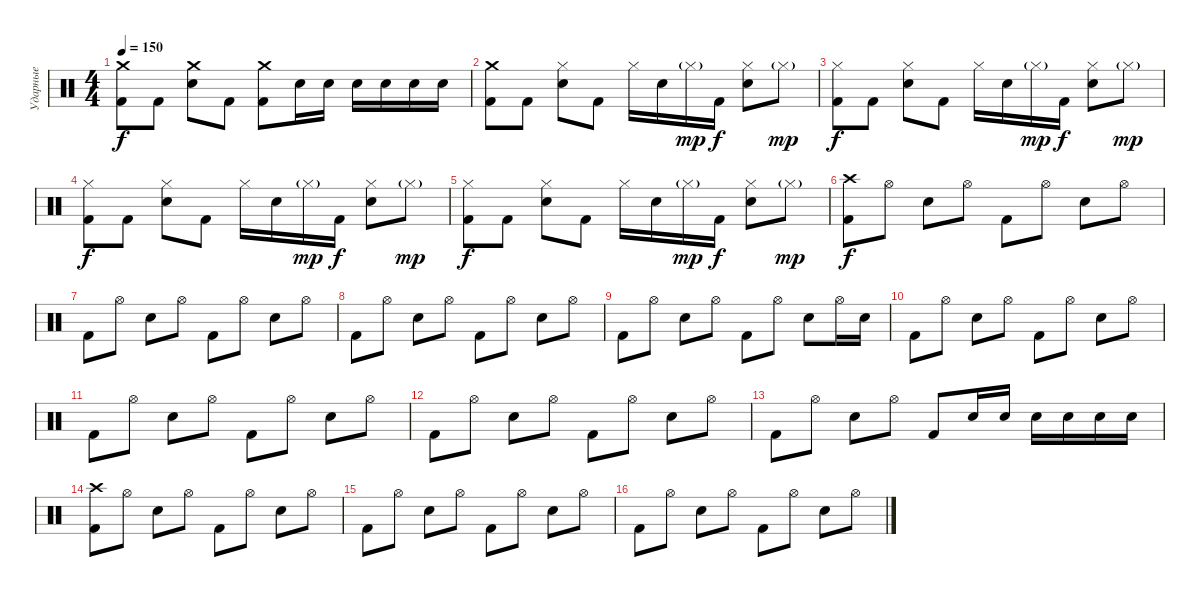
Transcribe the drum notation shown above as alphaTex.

\track ("Ударные" "Ударные") {instrument percussion}
\staff {score}
\articulation defaults
\ts (4 4)
\tempo 150
\clef neutral
\ks c
("Crash medium (hit)" "Kick (hit) 2").8{dy f} "Kick (hit) 2".8 ("Crash medium (hit)" "Snare (hit) 2").8 "Kick (hit) 2".8 ("Crash medium (hit)" "Kick (hit) 2").8 "Snare (hit) 2".16 "Snare (hit) 2".16 "Snare (hit) 2".16 "Snare (hit) 2".16 "Snare (hit) 2".16 "Snare (hit) 2".16 |
("Crash medium (hit)" "Kick (hit) 2").8 "Kick (hit) 2".8 ("Snare (hit) 2" "Hi-Hat (closed)").8 "Kick (hit) 2".8 "Hi-Hat (closed)".16 "Snare (hit) 2".16 "Hi-Hat (closed)"{g}.16{dy mp} "Kick (hit) 2".16{dy f} ("Snare (hit) 2" "Hi-Hat (closed)").8 "Hi-Hat (closed)"{g}.8{dy mp} |
("Hi-Hat (closed)" "Kick (hit) 2").8{dy f} "Kick (hit) 2".8 ("Snare (hit) 2" "Hi-Hat (closed)").8 "Kick (hit) 2".8 "Hi-Hat (closed)".16 "Snare (hit) 2".16 "Hi-Hat (closed)"{g}.16{dy mp} "Kick (hit) 2".16{dy f} ("Snare (hit) 2" "Hi-Hat (closed)").8 "Hi-Hat (closed)"{g}.8{dy mp} |
("Hi-Hat (closed)" "Kick (hit) 2").8{dy f} "Kick (hit) 2".8 ("Snare (hit) 2" "Hi-Hat (closed)").8 "Kick (hit) 2".8 "Hi-Hat (closed)".16 "Snare (hit) 2".16 "Hi-Hat (closed)"{g}.16{dy mp} "Kick (hit) 2".16{dy f} ("Snare (hit) 2" "Hi-Hat (closed)").8 "Hi-Hat (closed)"{g}.8{dy mp} |
("Hi-Hat (closed)" "Kick (hit) 2").8{dy f} "Kick (hit) 2".8 ("Snare (hit) 2" "Hi-Hat (closed)").8 "Kick (hit) 2".8 "Hi-Hat (closed)".16 "Snare (hit) 2".16 "Hi-Hat (closed)"{g}.16{dy mp} "Kick (hit) 2".16{dy f} ("Snare (hit) 2" "Hi-Hat (closed)").8 "Hi-Hat (closed)"{g}.8{dy mp} |
("Crash high (hit)" "Kick (hit) 2").8{dy f} "Hi-Hat (open)".8 "Snare (hit) 2".8 "Hi-Hat (open)".8 "Kick (hit) 2".8 "Hi-Hat (open)".8 "Snare (hit) 2".8 "Hi-Hat (open)".8 |
"Kick (hit) 2".8 "Hi-Hat (open)".8 "Snare (hit) 2".8 "Hi-Hat (open)".8 "Kick (hit) 2".8 "Hi-Hat (open)".8 "Snare (hit) 2".8 "Hi-Hat (open)".8 |
"Kick (hit) 2".8 "Hi-Hat (open)".8 "Snare (hit) 2".8 "Hi-Hat (open)".8 "Kick (hit) 2".8 "Hi-Hat (open)".8 "Snare (hit) 2".8 "Hi-Hat (open)".8 |
"Kick (hit) 2".8 "Hi-Hat (open)".8 "Snare (hit) 2".8 "Hi-Hat (open)".8 "Kick (hit) 2".8 "Hi-Hat (open)".8 "Snare (hit) 2".8 "Hi-Hat (open)".16 "Snare (hit) 2".16 |
"Kick (hit) 2".8 "Hi-Hat (open)".8 "Snare (hit) 2".8 "Hi-Hat (open)".8 "Kick (hit) 2".8 "Hi-Hat (open)".8 "Snare (hit) 2".8 "Hi-Hat (open)".8 |
"Kick (hit) 2".8 "Hi-Hat (open)".8 "Snare (hit) 2".8 "Hi-Hat (open)".8 "Kick (hit) 2".8 "Hi-Hat (open)".8 "Snare (hit) 2".8 "Hi-Hat (open)".8 |
"Kick (hit) 2".8 "Hi-Hat (open)".8 "Snare (hit) 2".8 "Hi-Hat (open)".8 "Kick (hit) 2".8 "Hi-Hat (open)".8 "Snare (hit) 2".8 "Hi-Hat (open)".8 |
"Kick (hit) 2".8 "Hi-Hat (open)".8 "Snare (hit) 2".8 "Hi-Hat (open)".8 "Kick (hit) 2".8 "Snare (hit) 2".16 "Snare (hit) 2".16 "Snare (hit) 2".16 "Snare (hit) 2".16 "Snare (hit) 2".16 "Snare (hit) 2".16 |
("Crash high (hit)" "Kick (hit) 2").8 "Hi-Hat (open)".8 "Snare (hit) 2".8 "Hi-Hat (open)".8 "Kick (hit) 2".8 "Hi-Hat (open)".8 "Snare (hit) 2".8 "Hi-Hat (open)".8 |
"Kick (hit) 2".8 "Hi-Hat (open)".8 "Snare (hit) 2".8 "Hi-Hat (open)".8 "Kick (hit) 2".8 "Hi-Hat (open)".8 "Snare (hit) 2".8 "Hi-Hat (open)".8 |
"Kick (hit) 2".8 "Hi-Hat (open)".8 "Snare (hit) 2".8 "Hi-Hat (open)".8 "Kick (hit) 2".8 "Hi-Hat (open)".8 "Snare (hit) 2".8 "Hi-Hat (open)".8
